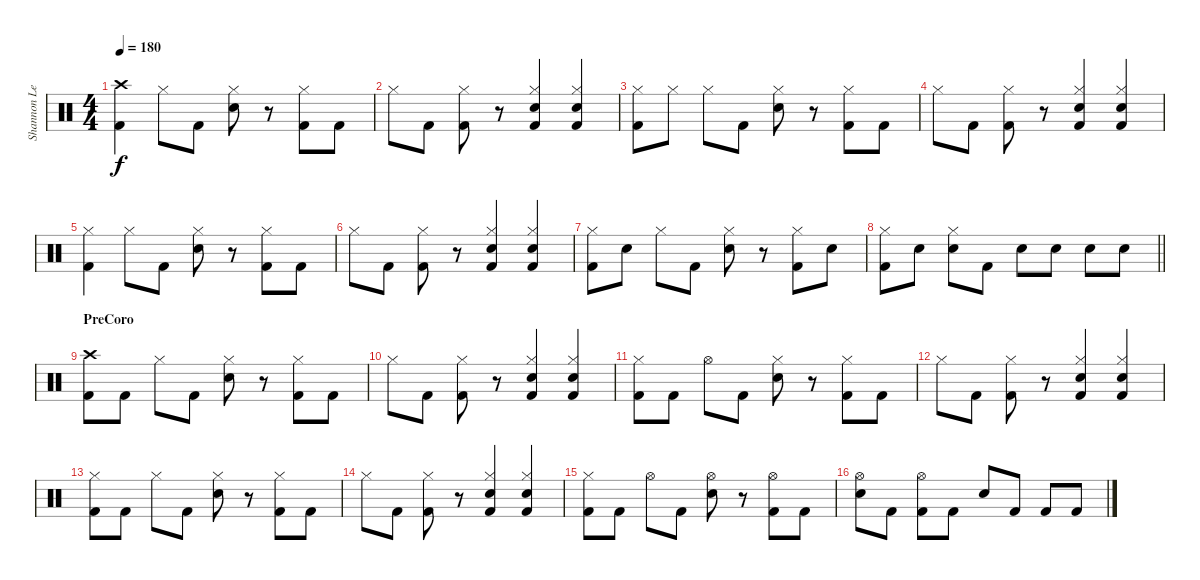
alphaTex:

\track ("Shannon Leto" "Shannon Le") {instrument percussion}
\staff {score}
\articulation defaults
\ts (4 4)
\tempo 180
\clef neutral
\ks c
("Crash high (hit)" "Kick (hit) 2").4{dy f} "Hi-Hat (closed)".8 "Kick (hit) 2".8 ("Hi-Hat (closed)" "Snare (hit) 2").8 r.8 ("Hi-Hat (closed)" "Kick (hit) 2").8 "Kick (hit) 2".8 |
"Hi-Hat (closed)".8 "Kick (hit) 2".8 ("Hi-Hat (closed)" "Kick (hit) 2").8 r.8 ("Hi-Hat (closed)" "Snare (hit) 2" "Kick (hit) 2").4 ("Hi-Hat (closed)" "Snare (hit) 2" "Kick (hit) 2").4 |
("Hi-Hat (closed)" "Kick (hit) 2").8 "Hi-Hat (closed)".8 "Hi-Hat (closed)".8 "Kick (hit) 2".8 ("Hi-Hat (closed)" "Snare (hit) 2").8 r.8 ("Hi-Hat (closed)" "Kick (hit) 2").8 "Kick (hit) 2".8 |
"Hi-Hat (closed)".8 "Kick (hit) 2".8 ("Hi-Hat (closed)" "Kick (hit) 2").8 r.8 ("Hi-Hat (closed)" "Snare (hit) 2" "Kick (hit) 2").4 ("Hi-Hat (closed)" "Snare (hit) 2" "Kick (hit) 2").4 |
("Hi-Hat (closed)" "Kick (hit) 2").4 "Hi-Hat (closed)".8 "Kick (hit) 2".8 ("Hi-Hat (closed)" "Snare (hit) 2").8 r.8 ("Hi-Hat (closed)" "Kick (hit) 2").8 "Kick (hit) 2".8 |
"Hi-Hat (closed)".8 "Kick (hit) 2".8 ("Hi-Hat (closed)" "Kick (hit) 2").8 r.8 ("Hi-Hat (closed)" "Snare (hit) 2" "Kick (hit) 2").4 ("Hi-Hat (closed)" "Snare (hit) 2" "Kick (hit) 2").4 |
("Hi-Hat (closed)" "Kick (hit) 2").8 "Snare (hit) 2".8 "Hi-Hat (closed)".8 "Kick (hit) 2".8 ("Hi-Hat (closed)" "Snare (hit) 2").8 r.8 ("Hi-Hat (closed)" "Kick (hit) 2").8 "Snare (hit) 2".8 |
\barLineRight lightlight
("Hi-Hat (closed)" "Kick (hit) 2").8 "Snare (hit) 2".8 ("Hi-Hat (closed)" "Snare (hit) 2").8 "Kick (hit) 2".8 "Snare (hit) 2".8 "Snare (hit) 2".8 "Snare (hit) 2".8 "Snare (hit) 2".8 |
\section ("" "PreCoro")
("Crash high (hit)" "Kick (hit) 2").8 "Kick (hit) 2".8 "Hi-Hat (closed)".8 "Kick (hit) 2".8 ("Hi-Hat (closed)" "Snare (hit) 2").8 r.8 ("Hi-Hat (closed)" "Kick (hit) 2").8 "Kick (hit) 2".8 |
"Hi-Hat (closed)".8 "Kick (hit) 2".8 ("Hi-Hat (closed)" "Kick (hit) 2").8 r.8 ("Hi-Hat (closed)" "Snare (hit) 2" "Kick (hit) 2").4 ("Hi-Hat (closed)" "Snare (hit) 2" "Kick (hit) 2").4 |
("Hi-Hat (closed)" "Kick (hit) 2").8 "Kick (hit) 2".8 "Hi-Hat (open)".8 "Kick (hit) 2".8 ("Hi-Hat (closed)" "Snare (hit) 2").8 r.8 ("Hi-Hat (closed)" "Kick (hit) 2").8 "Kick (hit) 2".8 |
"Hi-Hat (closed)".8 "Kick (hit) 2".8 ("Hi-Hat (closed)" "Kick (hit) 2").8 r.8 ("Hi-Hat (closed)" "Snare (hit) 2" "Kick (hit) 2").4 ("Hi-Hat (closed)" "Snare (hit) 2" "Kick (hit) 2").4 |
("Hi-Hat (closed)" "Kick (hit) 2").8 "Kick (hit) 2".8 "Hi-Hat (closed)".8 "Kick (hit) 2".8 ("Hi-Hat (closed)" "Snare (hit) 2").8 r.8 ("Hi-Hat (closed)" "Kick (hit) 2").8 "Kick (hit) 2".8 |
"Hi-Hat (closed)".8 "Kick (hit) 2".8 ("Hi-Hat (closed)" "Kick (hit) 2").8 r.8 ("Hi-Hat (closed)" "Snare (hit) 2" "Kick (hit) 2").4 ("Hi-Hat (closed)" "Snare (hit) 2" "Kick (hit) 2").4 |
("Hi-Hat (closed)" "Kick (hit) 2").8 "Kick (hit) 2".8 "Hi-Hat (open)".8 "Kick (hit) 2".8 ("Hi-Hat (open)" "Snare (hit) 2").8 r.8 ("Hi-Hat (open)" "Kick (hit) 2").8 "Kick (hit) 2".8 |
("Hi-Hat (open)" "Snare (hit) 2").8 "Kick (hit) 2".8 ("Hi-Hat (open)" "Kick (hit) 2").8 "Kick (hit) 2".8 "Snare (hit) 2".8 "Kick (hit) 2".8 "Kick (hit) 2".8 "Kick (hit) 2".8
